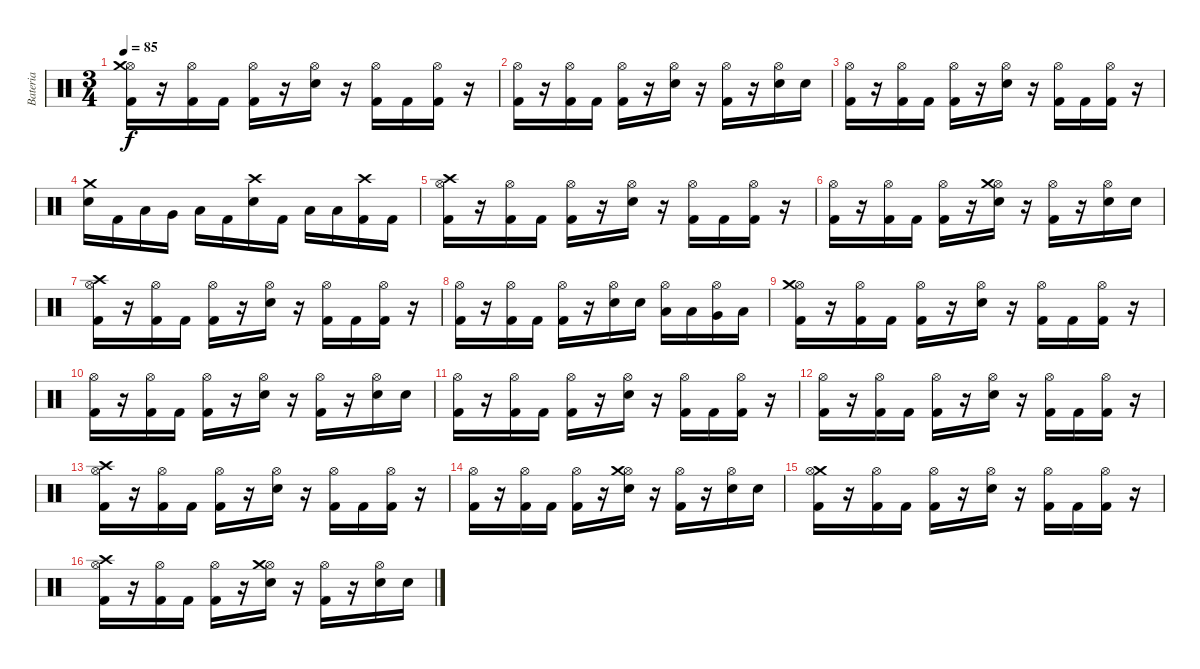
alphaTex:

\track ("Bateria" "Bateria") {instrument percussion}
\staff {score}
\articulation defaults
\ts (3 4)
\tempo 85
\clef neutral
\ks c
("Kick (hit) 2" "Hi-Hat (open)" "Crash medium (hit)").16{dy f} r.16 ("Kick (hit) 2" "Hi-Hat (open)").16 "Kick (hit) 2".16 ("Kick (hit) 2" "Hi-Hat (open)").16 r.16 ("Electric Snare (hit)" "Hi-Hat (open)").16 r.16 ("Kick (hit) 2" "Hi-Hat (open)").16 "Kick (hit) 2".16 ("Kick (hit) 2" "Hi-Hat (open)").16 r.16 |
("Kick (hit) 2" "Hi-Hat (open)").16 r.16 ("Kick (hit) 2" "Hi-Hat (open)").16 "Kick (hit) 2".16 ("Kick (hit) 2" "Hi-Hat (open)").16 r.16 ("Electric Snare (hit)" "Hi-Hat (open)").16 r.16 ("Kick (hit) 2" "Hi-Hat (open)").16 r.16 ("Electric Snare (hit)" "Hi-Hat (open)").16 "Electric Snare (hit)".16 |
("Kick (hit) 2" "Hi-Hat (open)").16 r.16 ("Kick (hit) 2" "Hi-Hat (open)").16 "Kick (hit) 2".16 ("Kick (hit) 2" "Hi-Hat (open)").16 r.16 ("Electric Snare (hit)" "Hi-Hat (open)").16 r.16 ("Kick (hit) 2" "Hi-Hat (open)").16 "Kick (hit) 2".16 ("Kick (hit) 2" "Hi-Hat (open)").16 r.16 |
("Electric Snare (hit)" "Crash medium (hit)").16 "Kick (hit) 2".16 "Low Tom (hit)".16 "Very Low Tom (hit)".16 "Low Floor Tom (hit)".16 "Kick (hit) 2".16 ("Electric Snare (hit)" "Crash high (hit)").16 "Kick (hit) 2".16 "Low Tom (hit)".16 "Low Floor Tom (hit)".16 ("Kick (hit) 2" "Crash high (hit)").16 "Kick (hit) 2".16 |
("Kick (hit) 2" "Hi-Hat (open)" "Crash high (hit)").16 r.16 ("Kick (hit) 2" "Hi-Hat (open)").16 "Kick (hit) 2".16 ("Kick (hit) 2" "Hi-Hat (open)").16 r.16 ("Electric Snare (hit)" "Hi-Hat (open)").16 r.16 ("Kick (hit) 2" "Hi-Hat (open)").16 "Kick (hit) 2".16 ("Kick (hit) 2" "Hi-Hat (open)").16 r.16 |
("Kick (hit) 2" "Hi-Hat (open)").16 r.16 ("Kick (hit) 2" "Hi-Hat (open)").16 "Kick (hit) 2".16 ("Kick (hit) 2" "Hi-Hat (open)").16 r.16 ("Electric Snare (hit)" "Hi-Hat (open)" "Crash medium (hit)").16 r.16 ("Kick (hit) 2" "Hi-Hat (open)").16 r.16 ("Electric Snare (hit)" "Hi-Hat (open)").16 "Electric Snare (hit)".16 |
("Kick (hit) 2" "Hi-Hat (open)" "Crash high (hit)").16 r.16 ("Kick (hit) 2" "Hi-Hat (open)").16 "Kick (hit) 2".16 ("Kick (hit) 2" "Hi-Hat (open)").16 r.16 ("Electric Snare (hit)" "Hi-Hat (open)").16 r.16 ("Kick (hit) 2" "Hi-Hat (open)").16 "Kick (hit) 2".16 ("Kick (hit) 2" "Hi-Hat (open)").16 r.16 |
("Kick (hit) 2" "Hi-Hat (open)").16 r.16 ("Kick (hit) 2" "Hi-Hat (open)").16 "Kick (hit) 2".16 ("Kick (hit) 2" "Hi-Hat (open)").16 r.16 ("Electric Snare (hit)" "Hi-Hat (open)").16 "Electric Snare (hit)".16 ("Low Tom (hit)" "Hi-Hat (open)").16 "Low Tom (hit)".16 ("Very Low Tom (hit)" "Hi-Hat (open)").16 "Low Floor Tom (hit)".16 |
("Kick (hit) 2" "Hi-Hat (open)" "Crash medium (hit)").16 r.16 ("Kick (hit) 2" "Hi-Hat (open)").16 "Kick (hit) 2".16 ("Kick (hit) 2" "Hi-Hat (open)").16 r.16 ("Electric Snare (hit)" "Hi-Hat (open)").16 r.16 ("Kick (hit) 2" "Hi-Hat (open)").16 "Kick (hit) 2".16 ("Kick (hit) 2" "Hi-Hat (open)").16 r.16 |
("Kick (hit) 2" "Hi-Hat (open)").16 r.16 ("Kick (hit) 2" "Hi-Hat (open)").16 "Kick (hit) 2".16 ("Kick (hit) 2" "Hi-Hat (open)").16 r.16 ("Electric Snare (hit)" "Hi-Hat (open)").16 r.16 ("Kick (hit) 2" "Hi-Hat (open)").16 r.16 ("Electric Snare (hit)" "Hi-Hat (open)").16 "Electric Snare (hit)".16 |
("Kick (hit) 2" "Hi-Hat (open)").16 r.16 ("Kick (hit) 2" "Hi-Hat (open)").16 "Kick (hit) 2".16 ("Kick (hit) 2" "Hi-Hat (open)").16 r.16 ("Electric Snare (hit)" "Hi-Hat (open)").16 r.16 ("Kick (hit) 2" "Hi-Hat (open)").16 "Kick (hit) 2".16 ("Kick (hit) 2" "Hi-Hat (open)").16 r.16 |
("Kick (hit) 2" "Hi-Hat (open)").16 r.16 ("Kick (hit) 2" "Hi-Hat (open)").16 "Kick (hit) 2".16 ("Kick (hit) 2" "Hi-Hat (open)").16 r.16 ("Electric Snare (hit)" "Hi-Hat (open)").16 r.16 ("Kick (hit) 2" "Hi-Hat (open)").16 "Kick (hit) 2".16 ("Kick (hit) 2" "Hi-Hat (open)").16 r.16 |
("Kick (hit) 2" "Crash high (hit)" "Hi-Hat (open)").16 r.16 ("Kick (hit) 2" "Hi-Hat (open)").16 "Kick (hit) 2".16 ("Kick (hit) 2" "Hi-Hat (open)").16 r.16 ("Electric Snare (hit)" "Hi-Hat (open)").16 r.16 ("Kick (hit) 2" "Hi-Hat (open)").16 "Kick (hit) 2".16 ("Kick (hit) 2" "Hi-Hat (open)").16 r.16 |
("Kick (hit) 2" "Hi-Hat (open)").16 r.16 ("Kick (hit) 2" "Hi-Hat (open)").16 "Kick (hit) 2".16 ("Kick (hit) 2" "Hi-Hat (open)").16 r.16 ("Electric Snare (hit)" "Hi-Hat (open)" "Crash medium (hit)").16 r.16 ("Kick (hit) 2" "Hi-Hat (open)").16 r.16 ("Electric Snare (hit)" "Hi-Hat (open)").16 "Electric Snare (hit)".16 |
("Kick (hit) 2" "Crash medium (hit)" "Hi-Hat (open)").16 r.16 ("Kick (hit) 2" "Hi-Hat (open)").16 "Kick (hit) 2".16 ("Kick (hit) 2" "Hi-Hat (open)").16 r.16 ("Electric Snare (hit)" "Hi-Hat (open)").16 r.16 ("Kick (hit) 2" "Hi-Hat (open)").16 "Kick (hit) 2".16 ("Kick (hit) 2" "Hi-Hat (open)").16 r.16 |
("Kick (hit) 2" "Crash high (hit)" "Hi-Hat (open)").16 r.16 ("Kick (hit) 2" "Hi-Hat (open)").16 "Kick (hit) 2".16 ("Kick (hit) 2" "Hi-Hat (open)").16 r.16 ("Electric Snare (hit)" "Hi-Hat (open)" "Crash medium (hit)").16 r.16 ("Kick (hit) 2" "Hi-Hat (open)").16 r.16 ("Electric Snare (hit)" "Hi-Hat (open)").16 "Electric Snare (hit)".16
